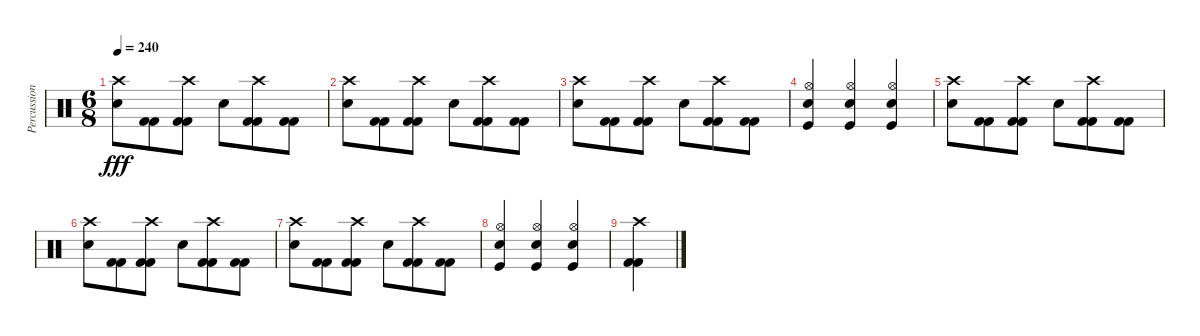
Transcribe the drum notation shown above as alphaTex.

\track ("Percussion" "Percussion") {instrument percussion}
\staff {score}
\articulation defaults
\ts (6 8)
\tempo 240
\clef neutral
\ks c
("Crash high (hit)" "Snare (hit) 2").8{dy fff} ("Kick (hit) 2" "Kick (hit) 2").8 ("Crash high (hit)" "Kick (hit) 2" "Kick (hit) 2").8 "Snare (hit) 2".8 ("Crash high (hit)" "Kick (hit) 2" "Kick (hit) 2").8 ("Kick (hit) 2" "Kick (hit) 2").8 |
("Crash high (hit)" "Snare (hit) 2").8 ("Kick (hit) 2" "Kick (hit) 2").8 ("Crash high (hit)" "Kick (hit) 2" "Kick (hit) 2").8 "Snare (hit) 2".8 ("Crash high (hit)" "Kick (hit) 2" "Kick (hit) 2").8 ("Kick (hit) 2" "Kick (hit) 2").8 |
("Crash high (hit)" "Snare (hit) 2").8 ("Kick (hit) 2" "Kick (hit) 2").8 ("Crash high (hit)" "Kick (hit) 2" "Kick (hit) 2").8 "Snare (hit) 2".8 ("Crash high (hit)" "Kick (hit) 2" "Kick (hit) 2").8 ("Kick (hit) 2" "Kick (hit) 2").8 |
("Electric Snare (hit)" "Hi-Hat (open)" "Kick (hit)").4 ("Electric Snare (hit)" "Hi-Hat (open)" "Kick (hit)").4 ("Electric Snare (hit)" "Hi-Hat (open)" "Kick (hit)").4 |
("Crash high (hit)" "Snare (hit) 2").8 ("Kick (hit) 2" "Kick (hit) 2").8 ("Crash high (hit)" "Kick (hit) 2" "Kick (hit) 2").8 "Snare (hit) 2".8 ("Crash high (hit)" "Kick (hit) 2" "Kick (hit) 2").8 ("Kick (hit) 2" "Kick (hit) 2").8 |
("Crash high (hit)" "Snare (hit) 2").8 ("Kick (hit) 2" "Kick (hit) 2").8 ("Crash high (hit)" "Kick (hit) 2" "Kick (hit) 2").8 "Snare (hit) 2".8 ("Crash high (hit)" "Kick (hit) 2" "Kick (hit) 2").8 ("Kick (hit) 2" "Kick (hit) 2").8 |
("Crash high (hit)" "Snare (hit) 2").8 ("Kick (hit) 2" "Kick (hit) 2").8 ("Crash high (hit)" "Kick (hit) 2" "Kick (hit) 2").8 "Snare (hit) 2".8 ("Crash high (hit)" "Kick (hit) 2" "Kick (hit) 2").8 ("Kick (hit) 2" "Kick (hit) 2").8 |
("Electric Snare (hit)" "Hi-Hat (open)" "Kick (hit)").4 ("Electric Snare (hit)" "Hi-Hat (open)" "Kick (hit)").4 ("Electric Snare (hit)" "Hi-Hat (open)" "Kick (hit)").4 |
("Crash high (hit)" "Kick (hit) 2" "Kick (hit) 2").4
